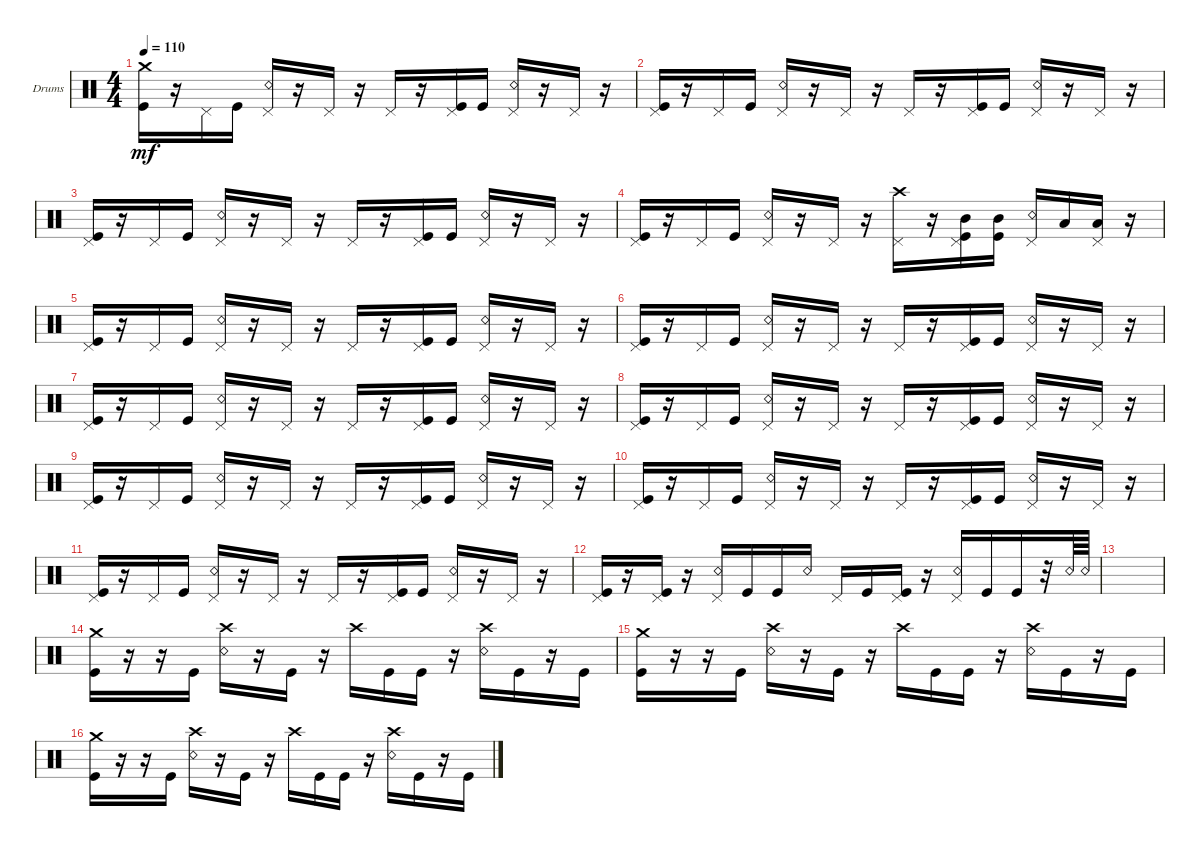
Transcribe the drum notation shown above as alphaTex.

\defaultSystemsLayout 4
\bracketExtendMode groupsimilarinstruments
\firstSystemTrackNameOrientation horizontal
\otherSystemsTrackNameOrientation horizontal
\track ("Drumkit" "Drums") {instrument percussion}
\staff {score}
\articulation defaults
\ts (4 4)
\tempo 110
\clef neutral
\ks c
("Crash medium (hit)" "Kick (hit)").16{dy mf} r.16 "Pedal Hi-Hat (hit)".16 "Kick (hit)".16 ("Pedal Hi-Hat (hit)" "Snare (rim shot)").16 r.16 "Pedal Hi-Hat (hit)".16 r.16 "Pedal Hi-Hat (hit)".16 r.16 ("Pedal Hi-Hat (hit)" "Kick (hit)").16 "Kick (hit)".16 ("Pedal Hi-Hat (hit)" "Snare (rim shot)").16 r.16 "Pedal Hi-Hat (hit)".16 r.16 |
("Kick (hit)" "Pedal Hi-Hat (hit)").16 r.16 "Pedal Hi-Hat (hit)".16 "Kick (hit)".16 ("Pedal Hi-Hat (hit)" "Snare (rim shot)").16 r.16 "Pedal Hi-Hat (hit)".16 r.16 "Pedal Hi-Hat (hit)".16 r.16 ("Pedal Hi-Hat (hit)" "Kick (hit)").16 "Kick (hit)".16 ("Pedal Hi-Hat (hit)" "Snare (rim shot)").16 r.16 "Pedal Hi-Hat (hit)".16 r.16 |
("Kick (hit)" "Pedal Hi-Hat (hit)").16 r.16 "Pedal Hi-Hat (hit)".16 "Kick (hit)".16 ("Pedal Hi-Hat (hit)" "Snare (rim shot)").16 r.16 "Pedal Hi-Hat (hit)".16 r.16 "Pedal Hi-Hat (hit)".16 r.16 ("Pedal Hi-Hat (hit)" "Kick (hit)").16 "Kick (hit)".16 ("Pedal Hi-Hat (hit)" "Snare (rim shot)").16 r.16 "Pedal Hi-Hat (hit)".16 r.16 |
("Kick (hit)" "Pedal Hi-Hat (hit)").16 r.16 "Pedal Hi-Hat (hit)".16 "Kick (hit)".16 ("Pedal Hi-Hat (hit)" "Snare (rim shot)").16 r.16 "Pedal Hi-Hat (hit)".16 r.16 ("Pedal Hi-Hat (hit)" "Crash high (hit)").16 r.16 ("Pedal Hi-Hat (hit)" "Kick (hit)" "Mid Tom (hit)").16 ("Kick (hit)" "Mid Tom (hit)").16 ("Pedal Hi-Hat (hit)" "Snare (rim shot)").16 "Low Tom (hit)".16 ("Pedal Hi-Hat (hit)" "Low Tom (hit)").16 r.16 |
("Kick (hit)" "Pedal Hi-Hat (hit)").16 r.16 "Pedal Hi-Hat (hit)".16 "Kick (hit)".16 ("Pedal Hi-Hat (hit)" "Snare (rim shot)").16 r.16 "Pedal Hi-Hat (hit)".16 r.16 "Pedal Hi-Hat (hit)".16 r.16 ("Pedal Hi-Hat (hit)" "Kick (hit)").16 "Kick (hit)".16 ("Pedal Hi-Hat (hit)" "Snare (rim shot)").16 r.16 "Pedal Hi-Hat (hit)".16 r.16 |
("Kick (hit)" "Pedal Hi-Hat (hit)").16 r.16 "Pedal Hi-Hat (hit)".16 "Kick (hit)".16 ("Pedal Hi-Hat (hit)" "Snare (rim shot)").16 r.16 "Pedal Hi-Hat (hit)".16 r.16 "Pedal Hi-Hat (hit)".16 r.16 ("Pedal Hi-Hat (hit)" "Kick (hit)").16 "Kick (hit)".16 ("Pedal Hi-Hat (hit)" "Snare (rim shot)").16 r.16 "Pedal Hi-Hat (hit)".16 r.16 |
("Kick (hit)" "Pedal Hi-Hat (hit)").16 r.16 "Pedal Hi-Hat (hit)".16 "Kick (hit)".16 ("Pedal Hi-Hat (hit)" "Snare (rim shot)").16 r.16 "Pedal Hi-Hat (hit)".16 r.16 "Pedal Hi-Hat (hit)".16 r.16 ("Pedal Hi-Hat (hit)" "Kick (hit)").16 "Kick (hit)".16 ("Pedal Hi-Hat (hit)" "Snare (rim shot)").16 r.16 "Pedal Hi-Hat (hit)".16 r.16 |
("Kick (hit)" "Pedal Hi-Hat (hit)").16 r.16 "Pedal Hi-Hat (hit)".16 "Kick (hit)".16 ("Pedal Hi-Hat (hit)" "Snare (rim shot)").16 r.16 "Pedal Hi-Hat (hit)".16 r.16 "Pedal Hi-Hat (hit)".16 r.16 ("Pedal Hi-Hat (hit)" "Kick (hit)").16 "Kick (hit)".16 ("Pedal Hi-Hat (hit)" "Snare (rim shot)").16 r.16 "Pedal Hi-Hat (hit)".16 r.16 |
("Kick (hit)" "Pedal Hi-Hat (hit)").16 r.16 "Pedal Hi-Hat (hit)".16 "Kick (hit)".16 ("Pedal Hi-Hat (hit)" "Snare (rim shot)").16 r.16 "Pedal Hi-Hat (hit)".16 r.16 "Pedal Hi-Hat (hit)".16 r.16 ("Pedal Hi-Hat (hit)" "Kick (hit)").16 "Kick (hit)".16 ("Pedal Hi-Hat (hit)" "Snare (rim shot)").16 r.16 "Pedal Hi-Hat (hit)".16 r.16 |
("Kick (hit)" "Pedal Hi-Hat (hit)").16 r.16 "Pedal Hi-Hat (hit)".16 "Kick (hit)".16 ("Pedal Hi-Hat (hit)" "Snare (rim shot)").16 r.16 "Pedal Hi-Hat (hit)".16 r.16 "Pedal Hi-Hat (hit)".16 r.16 ("Pedal Hi-Hat (hit)" "Kick (hit)").16 "Kick (hit)".16 ("Pedal Hi-Hat (hit)" "Snare (rim shot)").16 r.16 "Pedal Hi-Hat (hit)".16 r.16 |
("Kick (hit)" "Pedal Hi-Hat (hit)").16 r.16 "Pedal Hi-Hat (hit)".16 "Kick (hit)".16 ("Pedal Hi-Hat (hit)" "Snare (rim shot)").16 r.16 "Pedal Hi-Hat (hit)".16 r.16 "Pedal Hi-Hat (hit)".16 r.16 ("Pedal Hi-Hat (hit)" "Kick (hit)").16 "Kick (hit)".16 ("Pedal Hi-Hat (hit)" "Snare (rim shot)").16 r.16 "Pedal Hi-Hat (hit)".16 r.16 |
("Kick (hit)" "Pedal Hi-Hat (hit)").16 r.16 ("Kick (hit)" "Pedal Hi-Hat (hit)").16 r.16 ("Snare (rim shot)" "Pedal Hi-Hat (hit)").16 "Kick (hit)".16 "Kick (hit)".16 "Snare (rim shot)".16 "Pedal Hi-Hat (hit)".16 "Kick (hit)".16 ("Kick (hit)" "Pedal Hi-Hat (hit)").16 r.16 ("Snare (rim shot)" "Pedal Hi-Hat (hit)").16 "Kick (hit)".16 "Kick (hit)".16 r.32 "Snare (rim shot)".64 "Snare (rim shot)".64 |
|
("Kick (hit)" "Crash medium (hit)").16 r.16 r.16 "Kick (hit)".16 ("Snare (rim shot)" "Crash high (hit)").16 r.16 "Kick (hit)".16 r.16 "Crash high (hit)".16 "Kick (hit)".16 "Kick (hit)".16 r.16 ("Snare (rim shot)" "Crash high (hit)").16 "Kick (hit)".16 r.16 "Kick (hit)".16 |
("Kick (hit)" "Crash medium (hit)").16 r.16 r.16 "Kick (hit)".16 ("Snare (rim shot)" "Crash high (hit)").16 r.16 "Kick (hit)".16 r.16 "Crash high (hit)".16 "Kick (hit)".16 "Kick (hit)".16 r.16 ("Snare (rim shot)" "Crash high (hit)").16 "Kick (hit)".16 r.16 "Kick (hit)".16 |
("Kick (hit)" "Crash medium (hit)").16 r.16 r.16 "Kick (hit)".16 ("Snare (rim shot)" "Crash high (hit)").16 r.16 "Kick (hit)".16 r.16 "Crash high (hit)".16 "Kick (hit)".16 "Kick (hit)".16 r.16 ("Snare (rim shot)" "Crash high (hit)").16 "Kick (hit)".16 r.16 "Kick (hit)".16
